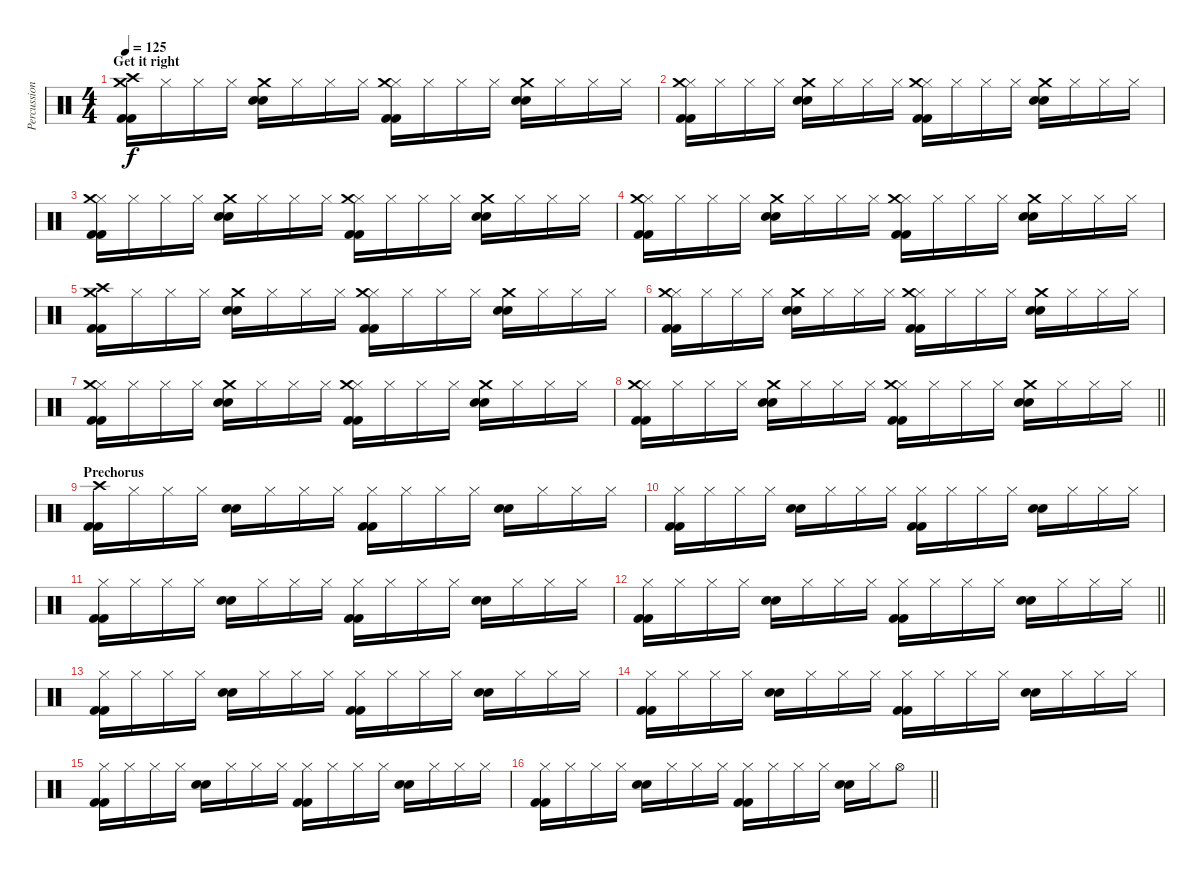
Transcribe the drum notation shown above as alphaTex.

\track ("Percussion2" "Percussion") {instrument percussion}
\staff {score}
\articulation defaults
\ts (4 4)
\section ("" "Get it right")
\tempo 125
\clef neutral
\ks c
("Crash high (hit)" "Crash medium (hit)" "Kick (hit) 2" "Kick (hit) 2").16{dy f} "Hi-Hat (closed)".16 "Hi-Hat (closed)".16 "Hi-Hat (closed)".16 ("Crash medium (hit)" "Electric Snare (hit)" "Electric Snare (hit)").16 "Hi-Hat (closed)".16 "Hi-Hat (closed)".16 "Hi-Hat (closed)".16 ("Hi-Hat (closed)" "Crash medium (hit)" "Kick (hit) 2" "Kick (hit) 2").16 "Hi-Hat (closed)".16 "Hi-Hat (closed)".16 "Hi-Hat (closed)".16 ("Crash medium (hit)" "Electric Snare (hit)" "Electric Snare (hit)").16 "Hi-Hat (closed)".16 "Hi-Hat (closed)".16 "Hi-Hat (closed)".16 |
("Hi-Hat (closed)" "Crash medium (hit)" "Kick (hit) 2" "Kick (hit) 2").16 "Hi-Hat (closed)".16 "Hi-Hat (closed)".16 "Hi-Hat (closed)".16 ("Crash medium (hit)" "Electric Snare (hit)" "Electric Snare (hit)").16 "Hi-Hat (closed)".16 "Hi-Hat (closed)".16 "Hi-Hat (closed)".16 ("Hi-Hat (closed)" "Crash medium (hit)" "Kick (hit) 2" "Kick (hit) 2").16 "Hi-Hat (closed)".16 "Hi-Hat (closed)".16 "Hi-Hat (closed)".16 ("Crash medium (hit)" "Electric Snare (hit)" "Electric Snare (hit)").16 "Hi-Hat (closed)".16 "Hi-Hat (closed)".16 "Hi-Hat (closed)".16 |
("Hi-Hat (closed)" "Crash medium (hit)" "Kick (hit) 2" "Kick (hit) 2").16 "Hi-Hat (closed)".16 "Hi-Hat (closed)".16 "Hi-Hat (closed)".16 ("Crash medium (hit)" "Electric Snare (hit)" "Electric Snare (hit)").16 "Hi-Hat (closed)".16 "Hi-Hat (closed)".16 "Hi-Hat (closed)".16 ("Hi-Hat (closed)" "Crash medium (hit)" "Kick (hit) 2" "Kick (hit) 2").16 "Hi-Hat (closed)".16 "Hi-Hat (closed)".16 "Hi-Hat (closed)".16 ("Crash medium (hit)" "Electric Snare (hit)" "Electric Snare (hit)").16 "Hi-Hat (closed)".16 "Hi-Hat (closed)".16 "Hi-Hat (closed)".16 |
("Hi-Hat (closed)" "Crash medium (hit)" "Kick (hit) 2" "Kick (hit) 2").16 "Hi-Hat (closed)".16 "Hi-Hat (closed)".16 "Hi-Hat (closed)".16 ("Crash medium (hit)" "Electric Snare (hit)" "Electric Snare (hit)").16 "Hi-Hat (closed)".16 "Hi-Hat (closed)".16 "Hi-Hat (closed)".16 ("Hi-Hat (closed)" "Crash medium (hit)" "Kick (hit) 2" "Kick (hit) 2").16 "Hi-Hat (closed)".16 "Hi-Hat (closed)".16 "Hi-Hat (closed)".16 ("Crash medium (hit)" "Electric Snare (hit)" "Electric Snare (hit)").16 "Hi-Hat (closed)".16 "Hi-Hat (closed)".16 "Hi-Hat (closed)".16 |
("Crash high (hit)" "Crash medium (hit)" "Kick (hit) 2" "Kick (hit) 2").16 "Hi-Hat (closed)".16 "Hi-Hat (closed)".16 "Hi-Hat (closed)".16 ("Crash medium (hit)" "Electric Snare (hit)" "Electric Snare (hit)").16 "Hi-Hat (closed)".16 "Hi-Hat (closed)".16 "Hi-Hat (closed)".16 ("Hi-Hat (closed)" "Crash medium (hit)" "Kick (hit) 2" "Kick (hit) 2").16 "Hi-Hat (closed)".16 "Hi-Hat (closed)".16 "Hi-Hat (closed)".16 ("Crash medium (hit)" "Electric Snare (hit)" "Electric Snare (hit)").16 "Hi-Hat (closed)".16 "Hi-Hat (closed)".16 "Hi-Hat (closed)".16 |
("Hi-Hat (closed)" "Crash medium (hit)" "Kick (hit) 2" "Kick (hit) 2").16 "Hi-Hat (closed)".16 "Hi-Hat (closed)".16 "Hi-Hat (closed)".16 ("Crash medium (hit)" "Electric Snare (hit)" "Electric Snare (hit)").16 "Hi-Hat (closed)".16 "Hi-Hat (closed)".16 "Hi-Hat (closed)".16 ("Hi-Hat (closed)" "Crash medium (hit)" "Kick (hit) 2" "Kick (hit) 2").16 "Hi-Hat (closed)".16 "Hi-Hat (closed)".16 "Hi-Hat (closed)".16 ("Crash medium (hit)" "Electric Snare (hit)" "Electric Snare (hit)").16 "Hi-Hat (closed)".16 "Hi-Hat (closed)".16 "Hi-Hat (closed)".16 |
("Hi-Hat (closed)" "Crash medium (hit)" "Kick (hit) 2" "Kick (hit) 2").16 "Hi-Hat (closed)".16 "Hi-Hat (closed)".16 "Hi-Hat (closed)".16 ("Crash medium (hit)" "Electric Snare (hit)" "Electric Snare (hit)").16 "Hi-Hat (closed)".16 "Hi-Hat (closed)".16 "Hi-Hat (closed)".16 ("Hi-Hat (closed)" "Crash medium (hit)" "Kick (hit) 2" "Kick (hit) 2").16 "Hi-Hat (closed)".16 "Hi-Hat (closed)".16 "Hi-Hat (closed)".16 ("Crash medium (hit)" "Electric Snare (hit)" "Electric Snare (hit)").16 "Hi-Hat (closed)".16 "Hi-Hat (closed)".16 "Hi-Hat (closed)".16 |
\barLineRight lightlight
("Hi-Hat (closed)" "Crash medium (hit)" "Kick (hit) 2" "Kick (hit) 2").16 "Hi-Hat (closed)".16 "Hi-Hat (closed)".16 "Hi-Hat (closed)".16 ("Crash medium (hit)" "Electric Snare (hit)" "Electric Snare (hit)").16 "Hi-Hat (closed)".16 "Hi-Hat (closed)".16 "Hi-Hat (closed)".16 ("Hi-Hat (closed)" "Crash medium (hit)" "Kick (hit) 2" "Kick (hit) 2").16 "Hi-Hat (closed)".16 "Hi-Hat (closed)".16 "Hi-Hat (closed)".16 ("Crash medium (hit)" "Electric Snare (hit)" "Electric Snare (hit)").16 "Hi-Hat (closed)".16 "Hi-Hat (closed)".16 "Hi-Hat (closed)".16 |
\section ("" "Prechorus")
("Crash high (hit)" "Kick (hit) 2" "Kick (hit) 2").16 "Hi-Hat (closed)".16 "Hi-Hat (closed)".16 "Hi-Hat (closed)".16 ("Electric Snare (hit)" "Electric Snare (hit)").16 "Hi-Hat (closed)".16 "Hi-Hat (closed)".16 "Hi-Hat (closed)".16 ("Hi-Hat (closed)" "Kick (hit) 2" "Kick (hit) 2").16 "Hi-Hat (closed)".16 "Hi-Hat (closed)".16 "Hi-Hat (closed)".16 ("Electric Snare (hit)" "Electric Snare (hit)").16 "Hi-Hat (closed)".16 "Hi-Hat (closed)".16 "Hi-Hat (closed)".16 |
("Hi-Hat (closed)" "Kick (hit) 2" "Kick (hit) 2").16 "Hi-Hat (closed)".16 "Hi-Hat (closed)".16 "Hi-Hat (closed)".16 ("Electric Snare (hit)" "Electric Snare (hit)").16 "Hi-Hat (closed)".16 "Hi-Hat (closed)".16 "Hi-Hat (closed)".16 ("Hi-Hat (closed)" "Kick (hit) 2" "Kick (hit) 2").16 "Hi-Hat (closed)".16 "Hi-Hat (closed)".16 "Hi-Hat (closed)".16 ("Electric Snare (hit)" "Electric Snare (hit)").16 "Hi-Hat (closed)".16 "Hi-Hat (closed)".16 "Hi-Hat (closed)".16 |
("Hi-Hat (closed)" "Kick (hit) 2" "Kick (hit) 2").16 "Hi-Hat (closed)".16 "Hi-Hat (closed)".16 "Hi-Hat (closed)".16 ("Electric Snare (hit)" "Electric Snare (hit)").16 "Hi-Hat (closed)".16 "Hi-Hat (closed)".16 "Hi-Hat (closed)".16 ("Hi-Hat (closed)" "Kick (hit) 2" "Kick (hit) 2").16 "Hi-Hat (closed)".16 "Hi-Hat (closed)".16 "Hi-Hat (closed)".16 ("Electric Snare (hit)" "Electric Snare (hit)").16 "Hi-Hat (closed)".16 "Hi-Hat (closed)".16 "Hi-Hat (closed)".16 |
\barLineRight lightlight
("Hi-Hat (closed)" "Kick (hit) 2" "Kick (hit) 2").16 "Hi-Hat (closed)".16 "Hi-Hat (closed)".16 "Hi-Hat (closed)".16 ("Electric Snare (hit)" "Electric Snare (hit)").16 "Hi-Hat (closed)".16 "Hi-Hat (closed)".16 "Hi-Hat (closed)".16 ("Hi-Hat (closed)" "Kick (hit) 2" "Kick (hit) 2").16 "Hi-Hat (closed)".16 "Hi-Hat (closed)".16 "Hi-Hat (closed)".16 ("Electric Snare (hit)" "Electric Snare (hit)").16 "Hi-Hat (closed)".16 "Hi-Hat (closed)".16 "Hi-Hat (closed)".16 |
("Hi-Hat (closed)" "Kick (hit) 2" "Kick (hit) 2").16 "Hi-Hat (closed)".16 "Hi-Hat (closed)".16 "Hi-Hat (closed)".16 ("Electric Snare (hit)" "Electric Snare (hit)").16 "Hi-Hat (closed)".16 "Hi-Hat (closed)".16 "Hi-Hat (closed)".16 ("Hi-Hat (closed)" "Kick (hit) 2" "Kick (hit) 2").16 "Hi-Hat (closed)".16 "Hi-Hat (closed)".16 "Hi-Hat (closed)".16 ("Electric Snare (hit)" "Electric Snare (hit)").16 "Hi-Hat (closed)".16 "Hi-Hat (closed)".16 "Hi-Hat (closed)".16 |
("Hi-Hat (closed)" "Kick (hit) 2" "Kick (hit) 2").16 "Hi-Hat (closed)".16 "Hi-Hat (closed)".16 "Hi-Hat (closed)".16 ("Electric Snare (hit)" "Electric Snare (hit)").16 "Hi-Hat (closed)".16 "Hi-Hat (closed)".16 "Hi-Hat (closed)".16 ("Hi-Hat (closed)" "Kick (hit) 2" "Kick (hit) 2").16 "Hi-Hat (closed)".16 "Hi-Hat (closed)".16 "Hi-Hat (closed)".16 ("Electric Snare (hit)" "Electric Snare (hit)").16 "Hi-Hat (closed)".16 "Hi-Hat (closed)".16 "Hi-Hat (closed)".16 |
("Hi-Hat (closed)" "Kick (hit) 2" "Kick (hit) 2").16 "Hi-Hat (closed)".16 "Hi-Hat (closed)".16 "Hi-Hat (closed)".16 ("Electric Snare (hit)" "Electric Snare (hit)").16 "Hi-Hat (closed)".16 "Hi-Hat (closed)".16 "Hi-Hat (closed)".16 ("Hi-Hat (closed)" "Kick (hit) 2" "Kick (hit) 2").16 "Hi-Hat (closed)".16 "Hi-Hat (closed)".16 "Hi-Hat (closed)".16 ("Electric Snare (hit)" "Electric Snare (hit)").16 "Hi-Hat (closed)".16 "Hi-Hat (closed)".16 "Hi-Hat (closed)".16 |
\barLineRight lightlight
("Hi-Hat (closed)" "Kick (hit) 2" "Kick (hit) 2").16 "Hi-Hat (closed)".16 "Hi-Hat (closed)".16 "Hi-Hat (closed)".16 ("Electric Snare (hit)" "Electric Snare (hit)").16 "Hi-Hat (closed)".16 "Hi-Hat (closed)".16 "Hi-Hat (closed)".16 ("Hi-Hat (closed)" "Kick (hit) 2" "Kick (hit) 2").16 "Hi-Hat (closed)".16 "Hi-Hat (closed)".16 "Hi-Hat (closed)".16 ("Electric Snare (hit)" "Electric Snare (hit)").16 "Hi-Hat (closed)".16 "Hi-Hat (open)".8
